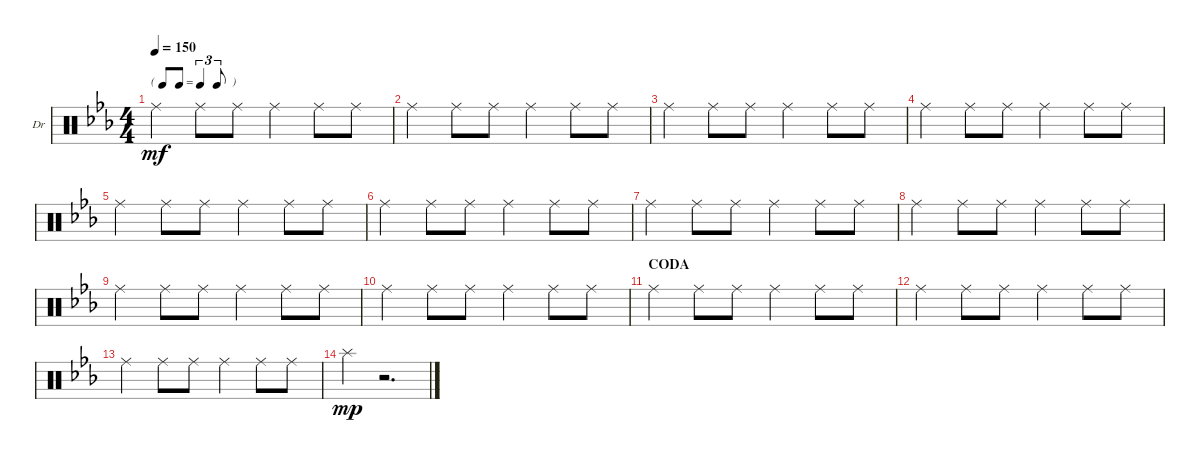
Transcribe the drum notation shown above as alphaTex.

\defaultSystemsLayout 4
\bracketExtendMode nobrackets
\firstSystemTrackNameOrientation horizontal
\otherSystemsTrackNameOrientation horizontal
\chordDiagramsInScore
\track ("Drums" "Dr") {instrument percussion}
\staff {score}
\articulation defaults
\ts (4 4)
\tf triplet8th
\tempo 150
\clef neutral
\ks cminor "Ride (middle)".4{dy mf} "Ride (middle)".8 "Ride (middle)".8 "Ride (middle)".4 "Ride (middle)".8 "Ride (middle)".8
|
"Ride (middle)".4 "Ride (middle)".8 "Ride (middle)".8 "Ride (middle)".4 "Ride (middle)".8 "Ride (middle)".8 |
"Ride (middle)".4 "Ride (middle)".8 "Ride (middle)".8 "Ride (middle)".4 "Ride (middle)".8 "Ride (middle)".8 |
"Ride (middle)".4 "Ride (middle)".8 "Ride (middle)".8 "Ride (middle)".4 "Ride (middle)".8 "Ride (middle)".8 |
"Ride (middle)".4 "Ride (middle)".8 "Ride (middle)".8 "Ride (middle)".4 "Ride (middle)".8 "Ride (middle)".8 |
"Ride (middle)".4 "Ride (middle)".8 "Ride (middle)".8 "Ride (middle)".4 "Ride (middle)".8 "Ride (middle)".8 |
"Ride (middle)".4 "Ride (middle)".8 "Ride (middle)".8 "Ride (middle)".4 "Ride (middle)".8 "Ride (middle)".8 |
"Ride (middle)".4 "Ride (middle)".8 "Ride (middle)".8 "Ride (middle)".4 "Ride (middle)".8 "Ride (middle)".8 |
"Ride (middle)".4 "Ride (middle)".8 "Ride (middle)".8 "Ride (middle)".4 "Ride (middle)".8 "Ride (middle)".8 |
"Ride (middle)".4 "Ride (middle)".8 "Ride (middle)".8 "Ride (middle)".4 "Ride (middle)".8 "Ride (middle)".8 |
\section ("" "CODA")
"Ride (middle)".4 "Ride (middle)".8 "Ride (middle)".8 "Ride (middle)".4 "Ride (middle)".8 "Ride (middle)".8 |
"Ride (middle)".4 "Ride (middle)".8 "Ride (middle)".8 "Ride (middle)".4 "Ride (middle)".8 "Ride (middle)".8 |
"Ride (middle)".4 "Ride (middle)".8 "Ride (middle)".8 "Ride (middle)".4 "Ride (middle)".8 "Ride (middle)".8 |
"Splash (hit)".4{dy mp} r.2{d}
